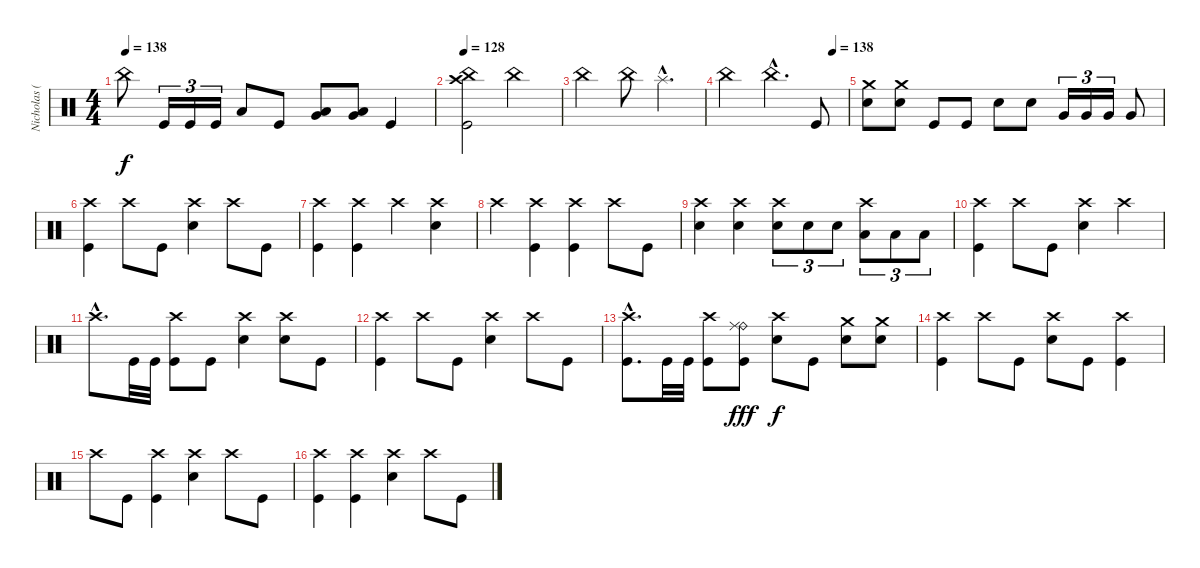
\track ("Nicholas (Drums)" "Nicholas (") {instrument percussion}
\staff {score}
\articulation defaults
\ts (4 4)
\tempo 138
\clef neutral
\ks c "China (hit)".8{dy f} "Kick (hit)".16{tu (3 2)} "Kick (hit)".16{tu (3 2)} "Kick (hit)".16{tu (3 2)} "Low Tom (hit)".8 "Kick (hit)".8
("Low Tom (hit)" "Very Low Tom (hit)").8{bu 60} ("Low Tom (hit)" "Very Low Tom (hit)").8{bu 60} "Kick (hit)".4 |
\tempo 128
("Crash high (hit)" "China (hit)" "Kick (hit)").2 "China (hit)".2 |
"China (hit)".2 "China (hit)".8 "Splash (hit)"{hac}.4{d} |
\tempo (138 0.875)
"China (hit)".2 "China (hit)"{hac}.4{d} "Kick (hit)".8 |
("Crash medium (hit)" "Electric Snare (hit)").8 ("Crash medium (hit)" "Electric Snare (hit)").8 "Kick (hit)".8 "Kick (hit)".8 "Electric Snare (hit)".8 "Electric Snare (hit)".8 "Very Low Tom (hit)".16{tu (3 2)} "Very Low Tom (hit)".16{tu (3 2)} "Very Low Tom (hit)".16{tu (3 2)} "Very Low Tom (hit)".8 |
("Crash high (hit)" "Kick (hit)").4 "Crash high (hit)".8 "Kick (hit)".8 ("Crash high (hit)" "Electric Snare (hit)").4 "Crash high (hit)".8 "Kick (hit)".8 |
("Crash high (hit)" "Kick (hit)").4 ("Crash high (hit)" "Kick (hit)").4 "Crash high (hit)".4 ("Crash high (hit)" "Electric Snare (hit)").4 |
"Crash high (hit)".4 ("Crash high (hit)" "Kick (hit)").4 ("Crash high (hit)" "Kick (hit)").4 "Crash high (hit)".8 "Kick (hit)".8 |
("Crash high (hit)" "Electric Snare (hit)").4 ("Crash high (hit)" "Electric Snare (hit)").4 ("Crash high (hit)" "Electric Snare (hit)").8{tu (3 2)} "Electric Snare (hit)".8{tu (3 2)} "Electric Snare (hit)".8{tu (3 2)} ("Crash high (hit)" "Low Tom (hit)").8{tu (3 2)} "Low Tom (hit)".8{tu (3 2)} "Low Tom (hit)".8{tu (3 2)} |
("Crash high (hit)" "Kick (hit)").4 "Crash high (hit)".8 "Kick (hit)".8 ("Crash high (hit)" "Electric Snare (hit)").4 "Crash high (hit)".4 |
"Crash high (hit)"{hac}.8{d} "Kick (hit)".32 "Kick (hit)".32 ("Crash high (hit)" "Kick (hit)").8 "Kick (hit)".8 ("Crash high (hit)" "Electric Snare (hit)").4 ("Crash high (hit)" "Electric Snare (hit)").8 "Kick (hit)".8 |
("Crash high (hit)" "Kick (hit)").4 "Crash high (hit)".8 "Kick (hit)".8 ("Crash high (hit)" "Electric Snare (hit)").4 "Crash high (hit)".8 "Kick (hit)".8 |
("Crash high (hit)"{hac} "Kick (hit)"{hac}).8{d} "Kick (hit)".32 "Kick (hit)".32 ("Crash high (hit)" "Kick (hit)").8 ("Ride (bell)" "Ride (middle)" "Kick (hit)").8{dy fff} ("Crash high (hit)" "Electric Snare (hit)").8{dy f} "Kick (hit)".8 ("Crash medium (hit)" "Electric Snare (hit)").8 ("Crash medium (hit)" "Electric Snare (hit)").8 |
("Crash high (hit)" "Kick (hit)").4 "Crash high (hit)".8 "Kick (hit)".8 ("Crash high (hit)" "Electric Snare (hit)").8 "Kick (hit)".8 ("Crash high (hit)" "Kick (hit)").4 |
"Crash high (hit)".8 "Kick (hit)".8 ("Crash high (hit)" "Kick (hit)").4 ("Crash high (hit)" "Electric Snare (hit)").4 "Crash high (hit)".8 "Kick (hit)".8 |
("Crash high (hit)" "Kick (hit)").4 ("Crash high (hit)" "Kick (hit)").4 ("Crash high (hit)" "Electric Snare (hit)").4 "Crash high (hit)".8 "Kick (hit)".8
